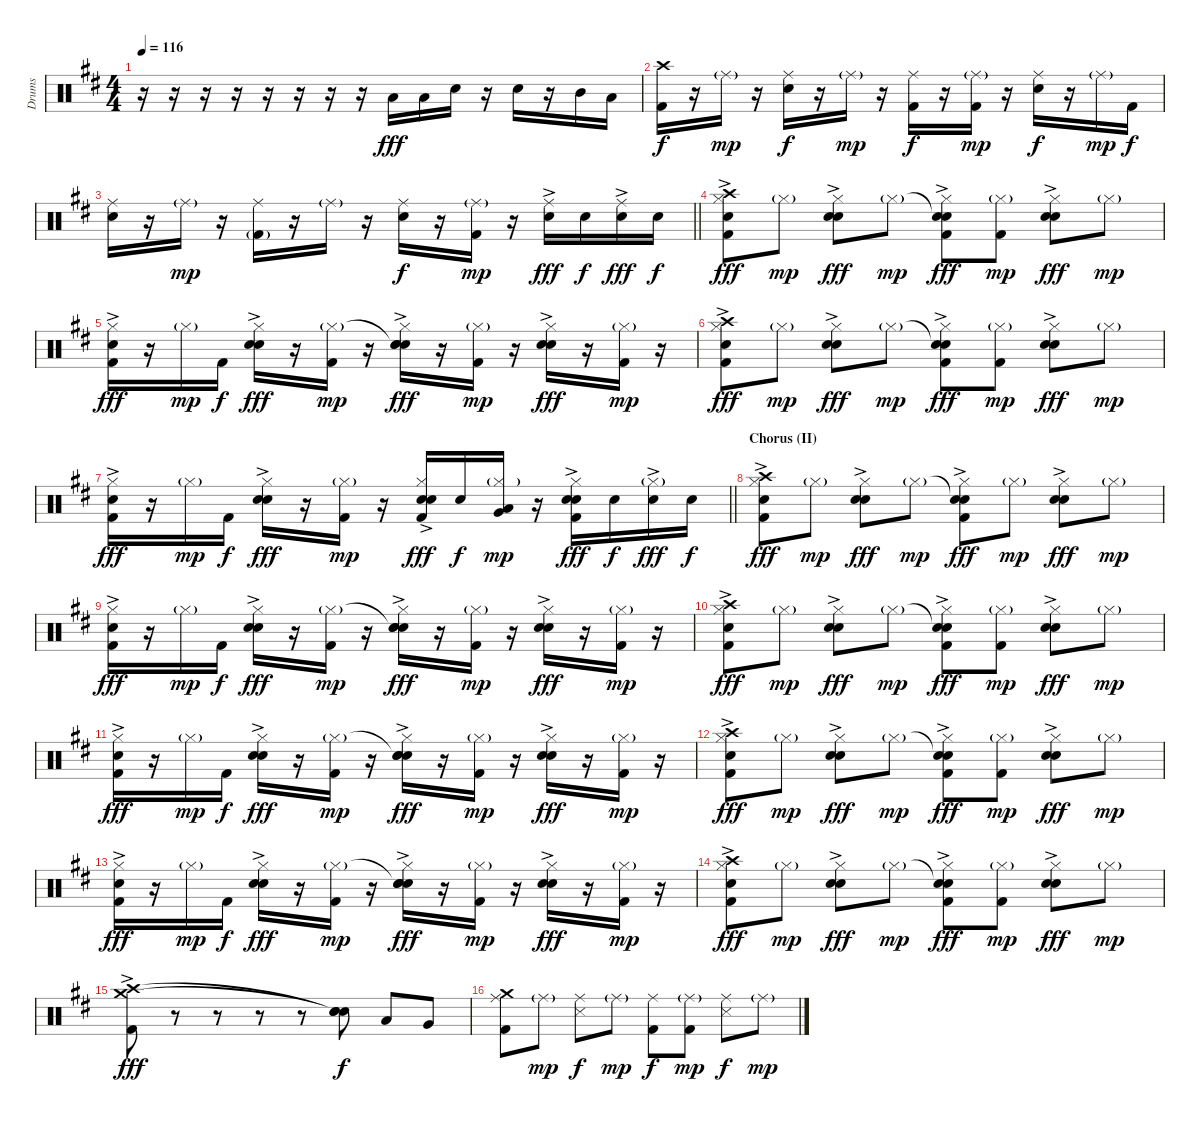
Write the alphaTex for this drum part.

\track ("Drums" "Drums") {instrument percussion}
\staff {score}
\articulation defaults
\ts (4 4)
\tempo 116
\clef neutral
\ks d
r.16{dy mp} r.16 r.16 r.16 r.16 r.16 r.16 r.16 "Low Tom (hit)".16{dy fff} "Low Tom (hit)".16 "Snare (hit) 2".16 r.16 "Snare (hit) 2".16 r.16 "Mid Tom (hit)".16 "Low Tom (hit)".16 |
("Crash high (hit)" "Kick (hit) 2").16{dy f} r.16 "Ride (middle)"{g}.16{dy mp} r.16 ("Ride (middle)" "Snare (hit) 2").16{dy f} r.16 "Ride (middle)"{g}.16{dy mp} r.16 ("Ride (middle)" "Kick (hit) 2").16{dy f} r.16 ("Ride (middle)"{g} "Kick (hit) 2").16{dy mp} r.16 ("Ride (middle)" "Snare (hit) 2").16{dy f} r.16 "Ride (middle)"{g}.16{dy mp} "Kick (hit) 2".16{dy f} |
\barLineRight lightlight
("Ride (middle)" "Snare (hit) 2").16 r.16 "Ride (middle)"{g}.16{dy mp} r.16 ("Ride (middle)" "Kick (hit) 2"{g}).16 r.16 "Ride (middle)"{g}.16 r.16 ("Ride (middle)" "Snare (hit) 2").16{dy f} r.16 ("Ride (middle)"{g} "Kick (hit) 2").16{dy mp} r.16 ("Ride (middle)" "Snare (hit) 2"{ac}).16{dy fff} "Snare (hit) 2".16{dy f} ("Ride (middle)" "Snare (hit) 2"{ac}).16{dy fff} "Snare (hit) 2".16{dy f} |
("Crash high (hit)" "Hi-Hat (closed)" "Hand Clap (hit)"{ac} "Kick (hit) 2").8{dy fff} "Hi-Hat (closed)"{g}.8{dy mp} ("Hi-Hat (closed)" "Hand Clap (hit)"{ac} "Snare (hit) 2").8{dy fff} "Hi-Hat (closed)"{g}.8{dy mp} ("Snare (hit)"{t} "Hi-Hat (closed)" "Hand Clap (hit)"{ac} "Kick (hit) 2").8{dy fff} ("Hi-Hat (closed)"{g} "Kick (hit) 2").8{dy mp} ("Hi-Hat (closed)" "Hand Clap (hit)"{ac} "Snare (hit) 2").8{dy fff} "Hi-Hat (closed)"{g}.8{dy mp} |
("Hi-Hat (closed)" "Hand Clap (hit)"{ac} "Kick (hit) 2").16{dy fff} r.16 "Hi-Hat (closed)"{g}.16{dy mp} "Kick (hit) 2".16{dy f} ("Hi-Hat (closed)" "Hand Clap (hit)"{ac} "Snare (hit) 2").16{dy fff} r.16 ("Hi-Hat (closed)"{g} "Kick (hit) 2").16{dy mp} r.16 ("Snare (hit)"{t} "Hi-Hat (closed)" "Hand Clap (hit)"{ac} "Snare (hit) 2").16{dy fff} r.16 ("Hi-Hat (closed)"{g} "Kick (hit) 2").16{dy mp} r.16 ("Hi-Hat (closed)" "Hand Clap (hit)"{ac} "Snare (hit) 2").16{dy fff} r.16 ("Hi-Hat (closed)"{g} "Kick (hit) 2").16{dy mp} r.16 |
("Crash high (hit)" "Hi-Hat (closed)" "Hand Clap (hit)"{ac} "Kick (hit) 2").8{dy fff} "Hi-Hat (closed)"{g}.8{dy mp} ("Hi-Hat (closed)" "Hand Clap (hit)"{ac} "Snare (hit) 2").8{dy fff} "Hi-Hat (closed)"{g}.8{dy mp} ("Snare (hit)"{t} "Hi-Hat (closed)" "Hand Clap (hit)"{ac} "Kick (hit) 2").8{dy fff} ("Hi-Hat (closed)"{g} "Kick (hit) 2").8{dy mp} ("Hi-Hat (closed)" "Hand Clap (hit)"{ac} "Snare (hit) 2").8{dy fff} "Hi-Hat (closed)"{g}.8{dy mp} |
\barLineRight lightlight
("Hi-Hat (closed)" "Hand Clap (hit)"{ac} "Kick (hit) 2").16{dy fff} r.16 "Hi-Hat (closed)"{g}.16{dy mp} "Kick (hit) 2".16{dy f} ("Hi-Hat (closed)" "Hand Clap (hit)"{ac} "Snare (hit) 2").16{dy fff} r.16 ("Hi-Hat (closed)"{g} "Kick (hit) 2").16{dy mp} r.16 ("Hi-Hat (closed)" "Hand Clap (hit)"{ac} "Snare (hit) 2" "Kick (hit) 2").16{dy fff} "Snare (hit) 2".16{dy f} ("Hi-Hat (closed)"{g} "Low Tom (hit)" "Very Low Tom (hit)").16{dy mp} r.16 ("Hi-Hat (closed)" "Hand Clap (hit)"{ac} "Snare (hit) 2"{ac} "Kick (hit) 2").16{dy fff} "Snare (hit) 2".16{dy f} ("Hi-Hat (closed)"{g} "Snare (hit) 2"{ac}).16{dy fff} "Snare (hit) 2".16{dy f} |
\section ("" "Chorus (II)")
("Crash high (hit)" "Hi-Hat (closed)" "Hand Clap (hit)"{ac} "Kick (hit) 2").8{dy fff} "Hi-Hat (closed)"{g}.8{dy mp} ("Hi-Hat (closed)" "Hand Clap (hit)"{ac} "Snare (hit) 2").8{dy fff} "Hi-Hat (closed)"{g}.8{dy mp} ("Snare (hit)"{t} "Hi-Hat (closed)" "Hand Clap (hit)"{ac} "Kick (hit) 2").8{dy fff} "Hi-Hat (closed)"{g}.8{dy mp} ("Hi-Hat (closed)" "Hand Clap (hit)"{ac} "Snare (hit) 2").8{dy fff} "Hi-Hat (closed)"{g}.8{dy mp} |
("Hi-Hat (closed)" "Hand Clap (hit)"{ac} "Kick (hit) 2").16{dy fff} r.16 "Hi-Hat (closed)"{g}.16{dy mp} "Kick (hit) 2".16{dy f} ("Hi-Hat (closed)" "Hand Clap (hit)"{ac} "Snare (hit) 2").16{dy fff} r.16 ("Hi-Hat (closed)"{g} "Kick (hit) 2").16{dy mp} r.16 ("Snare (hit)"{t} "Hi-Hat (closed)" "Hand Clap (hit)"{ac} "Snare (hit) 2").16{dy fff} r.16 ("Hi-Hat (closed)"{g} "Kick (hit) 2").16{dy mp} r.16 ("Hi-Hat (closed)" "Hand Clap (hit)"{ac} "Snare (hit) 2").16{dy fff} r.16 ("Hi-Hat (closed)"{g} "Kick (hit) 2").16{dy mp} r.16 |
("Crash high (hit)" "Hi-Hat (closed)" "Hand Clap (hit)"{ac} "Kick (hit) 2").8{dy fff} "Hi-Hat (closed)"{g}.8{dy mp} ("Hi-Hat (closed)" "Hand Clap (hit)"{ac} "Snare (hit) 2").8{dy fff} "Hi-Hat (closed)"{g}.8{dy mp} ("Snare (hit)"{t} "Hi-Hat (closed)" "Hand Clap (hit)"{ac} "Kick (hit) 2").8{dy fff} ("Hi-Hat (closed)"{g} "Kick (hit) 2").8{dy mp} ("Hi-Hat (closed)" "Hand Clap (hit)"{ac} "Snare (hit) 2").8{dy fff} "Hi-Hat (closed)"{g}.8{dy mp} |
("Hi-Hat (closed)" "Hand Clap (hit)"{ac} "Kick (hit) 2").16{dy fff} r.16 "Hi-Hat (closed)"{g}.16{dy mp} "Kick (hit) 2".16{dy f} ("Hi-Hat (closed)" "Hand Clap (hit)"{ac} "Snare (hit) 2").16{dy fff} r.16 ("Hi-Hat (closed)"{g} "Kick (hit) 2").16{dy mp} r.16 ("Snare (hit)"{t} "Hi-Hat (closed)" "Hand Clap (hit)"{ac} "Snare (hit) 2").16{dy fff} r.16 ("Hi-Hat (closed)"{g} "Kick (hit) 2").16{dy mp} r.16 ("Hi-Hat (closed)" "Hand Clap (hit)"{ac} "Snare (hit) 2").16{dy fff} r.16 ("Hi-Hat (closed)"{g} "Kick (hit) 2").16{dy mp} r.16 |
("Crash high (hit)" "Hi-Hat (closed)" "Hand Clap (hit)"{ac} "Kick (hit) 2").8{dy fff} "Hi-Hat (closed)"{g}.8{dy mp} ("Hi-Hat (closed)" "Hand Clap (hit)"{ac} "Snare (hit) 2").8{dy fff} "Hi-Hat (closed)"{g}.8{dy mp} ("Snare (hit)"{t} "Hi-Hat (closed)" "Hand Clap (hit)"{ac} "Kick (hit) 2").8{dy fff} ("Hi-Hat (closed)"{g} "Kick (hit) 2").8{dy mp} ("Hi-Hat (closed)" "Hand Clap (hit)"{ac} "Snare (hit) 2").8{dy fff} "Hi-Hat (closed)"{g}.8{dy mp} |
("Hi-Hat (closed)" "Hand Clap (hit)"{ac} "Kick (hit) 2").16{dy fff} r.16 "Hi-Hat (closed)"{g}.16{dy mp} "Kick (hit) 2".16{dy f} ("Hi-Hat (closed)" "Hand Clap (hit)"{ac} "Snare (hit) 2").16{dy fff} r.16 ("Hi-Hat (closed)"{g} "Kick (hit) 2").16{dy mp} r.16 ("Snare (hit)"{t} "Hi-Hat (closed)" "Hand Clap (hit)"{ac} "Snare (hit) 2").16{dy fff} r.16 ("Hi-Hat (closed)"{g} "Kick (hit) 2").16{dy mp} r.16 ("Hi-Hat (closed)" "Hand Clap (hit)"{ac} "Snare (hit) 2").16{dy fff} r.16 ("Hi-Hat (closed)"{g} "Kick (hit) 2").16{dy mp} r.16 |
("Crash high (hit)" "Hi-Hat (closed)" "Hand Clap (hit)"{ac} "Kick (hit) 2").8{dy fff} "Hi-Hat (closed)"{g}.8{dy mp} ("Hi-Hat (closed)" "Hand Clap (hit)"{ac} "Snare (hit) 2").8{dy fff} "Hi-Hat (closed)"{g}.8{dy mp} ("Snare (hit)"{t} "Hi-Hat (closed)" "Hand Clap (hit)"{ac} "Kick (hit) 2").8{dy fff} ("Hi-Hat (closed)"{g} "Kick (hit) 2").8{dy mp} ("Hi-Hat (closed)" "Hand Clap (hit)"{ac} "Snare (hit) 2").8{dy fff} "Hi-Hat (closed)"{g}.8{dy mp} |
("Crash high (hit)"{ac} "Crash medium (hit)"{ac} "Kick (hit) 2").8{dy fff} r.8 r.8 r.8 r.8 ("Snare (hit)"{t} "Snare (hit)"{t} "Snare (hit) 2").8{dy f} "Low Tom (hit)".8 "Very Low Tom (hit)".8 |
("Crash medium (hit)" "Ride (middle)" "Kick (hit) 2").8 "Ride (middle)"{g}.8{dy mp} ("Ride (middle)" "Snare (side stick) 3").8{dy f} "Ride (middle)"{g}.8{dy mp} ("Ride (middle)" "Kick (hit) 2").8{dy f} ("Ride (middle)"{g} "Kick (hit) 2").8{dy mp} ("Ride (middle)" "Snare (side stick) 3").8{dy f} "Ride (middle)"{g}.8{dy mp}
